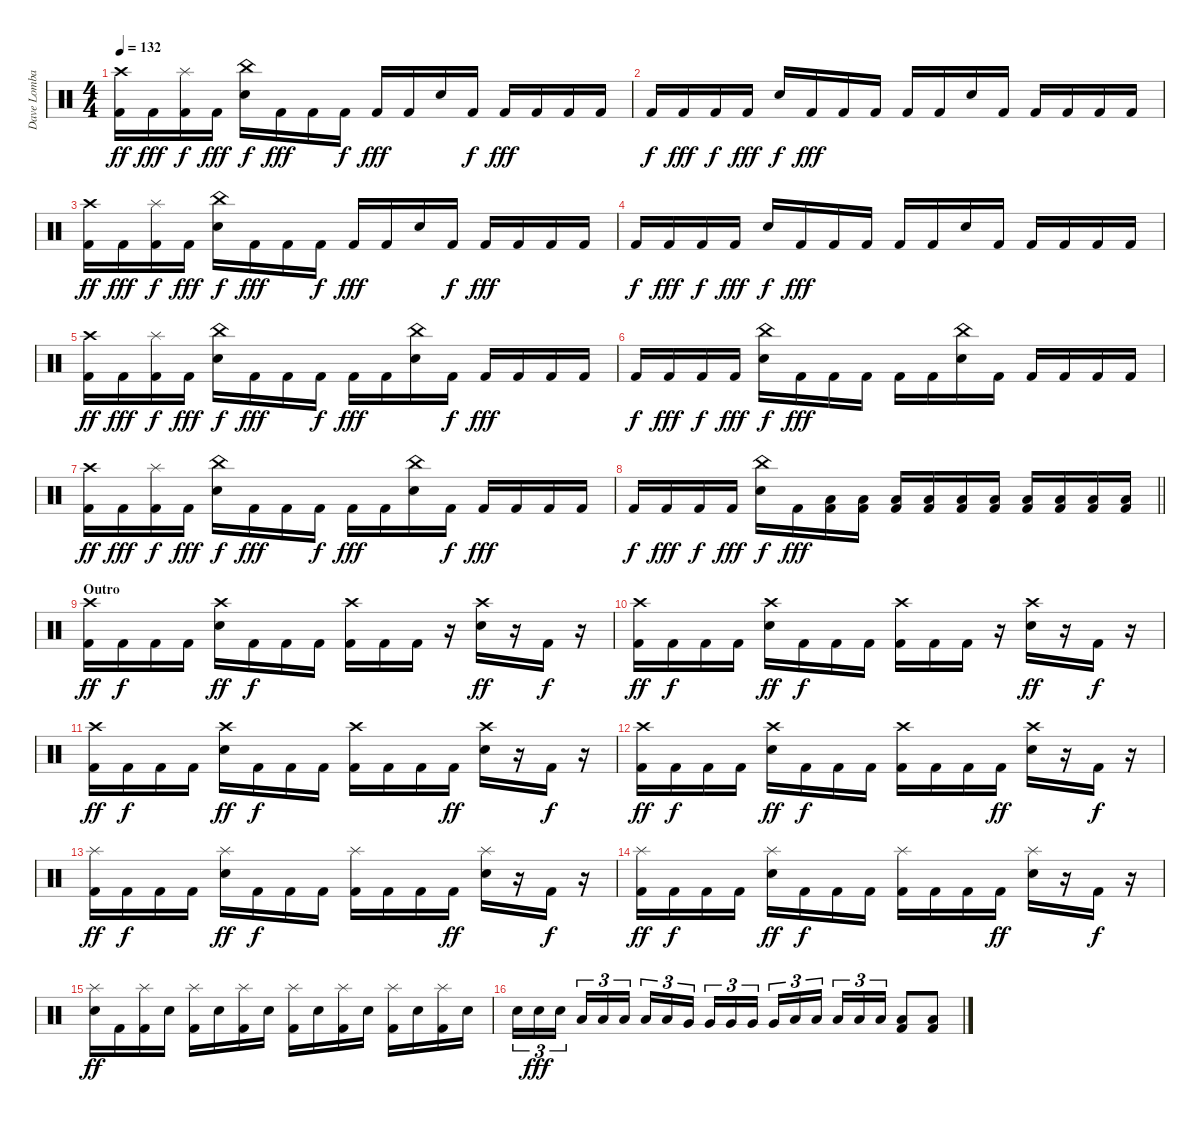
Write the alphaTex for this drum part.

\track ("Dave Lombardo" "Dave Lomba") {instrument percussion}
\staff {score}
\articulation defaults
\ts (4 4)
\tempo 132
\clef neutral
\ks c
("Crash high (hit)" "Kick (hit) 2").16{dy ff} "Kick (hit) 2".16{dy fff} ("Splash (hit)" "Kick (hit) 2").16{dy f} "Kick (hit) 2".16{dy fff} ("China (hit)" "Snare (hit) 2").16{dy f} "Kick (hit) 2".16{dy fff} "Kick (hit) 2".16 "Kick (hit) 2".16{dy f} "Kick (hit) 2".16{dy fff} "Kick (hit) 2".16 "Snare (hit) 2".16 "Kick (hit) 2".16{dy f} "Kick (hit) 2".16{dy fff} "Kick (hit) 2".16 "Kick (hit) 2".16 "Kick (hit) 2".16 |
"Kick (hit) 2".16{dy f} "Kick (hit) 2".16{dy fff} "Kick (hit) 2".16{dy f} "Kick (hit) 2".16{dy fff} "Snare (hit) 2".16{dy f} "Kick (hit) 2".16{dy fff} "Kick (hit) 2".16 "Kick (hit) 2".16 "Kick (hit) 2".16 "Kick (hit) 2".16 "Snare (hit) 2".16 "Kick (hit) 2".16 "Kick (hit) 2".16 "Kick (hit) 2".16 "Kick (hit) 2".16 "Kick (hit) 2".16 |
("Crash high (hit)" "Kick (hit) 2").16{dy ff} "Kick (hit) 2".16{dy fff} ("Splash (hit)" "Kick (hit) 2").16{dy f} "Kick (hit) 2".16{dy fff} ("China (hit)" "Snare (hit) 2").16{dy f} "Kick (hit) 2".16{dy fff} "Kick (hit) 2".16 "Kick (hit) 2".16{dy f} "Kick (hit) 2".16{dy fff} "Kick (hit) 2".16 "Snare (hit) 2".16 "Kick (hit) 2".16{dy f} "Kick (hit) 2".16{dy fff} "Kick (hit) 2".16 "Kick (hit) 2".16 "Kick (hit) 2".16 |
"Kick (hit) 2".16{dy f} "Kick (hit) 2".16{dy fff} "Kick (hit) 2".16{dy f} "Kick (hit) 2".16{dy fff} "Snare (hit) 2".16{dy f} "Kick (hit) 2".16{dy fff} "Kick (hit) 2".16 "Kick (hit) 2".16 "Kick (hit) 2".16 "Kick (hit) 2".16 "Snare (hit) 2".16 "Kick (hit) 2".16 "Kick (hit) 2".16 "Kick (hit) 2".16 "Kick (hit) 2".16 "Kick (hit) 2".16 |
("Crash high (hit)" "Kick (hit) 2").16{dy ff} "Kick (hit) 2".16{dy fff} ("Splash (hit)" "Kick (hit) 2").16{dy f} "Kick (hit) 2".16{dy fff} ("China (hit)" "Snare (hit) 2").16{dy f} "Kick (hit) 2".16{dy fff} "Kick (hit) 2".16 "Kick (hit) 2".16{dy f} "Kick (hit) 2".16{dy fff} "Kick (hit) 2".16 ("China (hit)" "Snare (hit) 2").16 "Kick (hit) 2".16{dy f} "Kick (hit) 2".16{dy fff} "Kick (hit) 2".16 "Kick (hit) 2".16 "Kick (hit) 2".16 |
"Kick (hit) 2".16{dy f} "Kick (hit) 2".16{dy fff} "Kick (hit) 2".16{dy f} "Kick (hit) 2".16{dy fff} ("China (hit)" "Snare (hit) 2").16{dy f} "Kick (hit) 2".16{dy fff} "Kick (hit) 2".16 "Kick (hit) 2".16 "Kick (hit) 2".16 "Kick (hit) 2".16 ("China (hit)" "Snare (hit) 2").16 "Kick (hit) 2".16 "Kick (hit) 2".16 "Kick (hit) 2".16 "Kick (hit) 2".16 "Kick (hit) 2".16 |
("Crash high (hit)" "Kick (hit) 2").16{dy ff} "Kick (hit) 2".16{dy fff} ("Splash (hit)" "Kick (hit) 2").16{dy f} "Kick (hit) 2".16{dy fff} ("China (hit)" "Snare (hit) 2").16{dy f} "Kick (hit) 2".16{dy fff} "Kick (hit) 2".16 "Kick (hit) 2".16{dy f} "Kick (hit) 2".16{dy fff} "Kick (hit) 2".16 ("China (hit)" "Snare (hit) 2").16 "Kick (hit) 2".16{dy f} "Kick (hit) 2".16{dy fff} "Kick (hit) 2".16 "Kick (hit) 2".16 "Kick (hit) 2".16 |
\barLineRight lightlight "Kick (hit) 2".16{dy f} "Kick (hit) 2".16{dy fff} "Kick (hit) 2".16{dy f} "Kick (hit) 2".16{dy fff}
("China (hit)" "Snare (hit) 2").16{dy f} "Kick (hit) 2".16{dy fff} ("Low Floor Tom (hit)" "Kick (hit) 2").16 ("Low Floor Tom (hit)" "Kick (hit) 2").16 ("Low Floor Tom (hit)" "Kick (hit) 2").16 ("Low Floor Tom (hit)" "Kick (hit) 2").16 ("Low Floor Tom (hit)" "Kick (hit) 2").16 ("Low Floor Tom (hit)" "Kick (hit) 2").16 ("Low Floor Tom (hit)" "Kick (hit) 2").16 ("Low Floor Tom (hit)" "Kick (hit) 2").16 ("Low Floor Tom (hit)" "Kick (hit) 2").16 ("Low Floor Tom (hit)" "Kick (hit) 2").16 |
\section ("" "Outro")
("Crash high (hit)" "Kick (hit) 2").16{dy ff} "Kick (hit) 2".16{dy f} "Kick (hit) 2".16 "Kick (hit) 2".16 ("Crash high (hit)" "Snare (hit) 2").16{dy ff} "Kick (hit) 2".16{dy f} "Kick (hit) 2".16 "Kick (hit) 2".16 ("Crash high (hit)" "Kick (hit) 2").16 "Kick (hit) 2".16 "Kick (hit) 2".16 r.16 ("Crash high (hit)" "Snare (hit) 2").16{dy ff} r.16 "Kick (hit) 2".16{dy f} r.16 |
("Crash high (hit)" "Kick (hit) 2").16{dy ff} "Kick (hit) 2".16{dy f} "Kick (hit) 2".16 "Kick (hit) 2".16 ("Crash high (hit)" "Snare (hit) 2").16{dy ff} "Kick (hit) 2".16{dy f} "Kick (hit) 2".16 "Kick (hit) 2".16 ("Crash high (hit)" "Kick (hit) 2").16 "Kick (hit) 2".16 "Kick (hit) 2".16 r.16 ("Crash high (hit)" "Snare (hit) 2").16{dy ff} r.16 "Kick (hit) 2".16{dy f} r.16 |
("Crash high (hit)" "Kick (hit) 2").16{dy ff} "Kick (hit) 2".16{dy f} "Kick (hit) 2".16 "Kick (hit) 2".16 ("Crash high (hit)" "Snare (hit) 2").16{dy ff} "Kick (hit) 2".16{dy f} "Kick (hit) 2".16 "Kick (hit) 2".16 ("Crash high (hit)" "Kick (hit) 2").16 "Kick (hit) 2".16 "Kick (hit) 2".16 "Kick (hit) 2".16{dy ff} ("Crash high (hit)" "Snare (hit) 2").16 r.16 "Kick (hit) 2".16{dy f} r.16 |
("Crash high (hit)" "Kick (hit) 2").16{dy ff} "Kick (hit) 2".16{dy f} "Kick (hit) 2".16 "Kick (hit) 2".16 ("Crash high (hit)" "Snare (hit) 2").16{dy ff} "Kick (hit) 2".16{dy f} "Kick (hit) 2".16 "Kick (hit) 2".16 ("Crash high (hit)" "Kick (hit) 2").16 "Kick (hit) 2".16 "Kick (hit) 2".16 "Kick (hit) 2".16{dy ff} ("Crash high (hit)" "Snare (hit) 2").16 r.16 "Kick (hit) 2".16{dy f} r.16 |
("Splash (hit)" "Kick (hit) 2").16{dy ff} "Kick (hit) 2".16{dy f} "Kick (hit) 2".16 "Kick (hit) 2".16 ("Splash (hit)" "Snare (hit) 2").16{dy ff} "Kick (hit) 2".16{dy f} "Kick (hit) 2".16 "Kick (hit) 2".16 ("Splash (hit)" "Kick (hit) 2").16 "Kick (hit) 2".16 "Kick (hit) 2".16 "Kick (hit) 2".16{dy ff} ("Splash (hit)" "Snare (hit) 2").16 r.16 "Kick (hit) 2".16{dy f} r.16 |
("Splash (hit)" "Kick (hit) 2").16{dy ff} "Kick (hit) 2".16{dy f} "Kick (hit) 2".16 "Kick (hit) 2".16 ("Splash (hit)" "Snare (hit) 2").16{dy ff} "Kick (hit) 2".16{dy f} "Kick (hit) 2".16 "Kick (hit) 2".16 ("Splash (hit)" "Kick (hit) 2").16 "Kick (hit) 2".16 "Kick (hit) 2".16 "Kick (hit) 2".16{dy ff} ("Splash (hit)" "Snare (hit) 2").16 r.16 "Kick (hit) 2".16{dy f} r.16 |
("Splash (hit)" "Snare (hit) 2").16{dy ff} "Kick (hit) 2".16 ("Splash (hit)" "Kick (hit) 2").16 "Snare (hit) 2".16 ("Splash (hit)" "Kick (hit) 2").16 "Snare (hit) 2".16 ("Splash (hit)" "Kick (hit) 2").16 "Snare (hit) 2".16 ("Splash (hit)" "Kick (hit) 2").16 "Snare (hit) 2".16 ("Splash (hit)" "Kick (hit) 2").16 "Snare (hit) 2".16 ("Splash (hit)" "Kick (hit) 2").16 "Snare (hit) 2".16 ("Splash (hit)" "Kick (hit) 2").16 "Snare (hit) 2".16 |
"Snare (hit) 2".16{tu (3 2)} "Snare (hit) 2".16{tu (3 2) dy fff} "Snare (hit) 2".16{tu (3 2) beam splitsecondary} "Low Tom (hit)".16{tu (3 2)} "Low Tom (hit)".16{tu (3 2)} "Low Tom (hit)".16{tu (3 2)} "Low Tom (hit)".16{tu (3 2)} "Low Tom (hit)".16{tu (3 2)} "Very Low Tom (hit)".16{tu (3 2) beam splitsecondary} "Very Low Tom (hit)".16{tu (3 2)} "Very Low Tom (hit)".16{tu (3 2)} "Very Low Tom (hit)".16{tu (3 2)} "Very Low Tom (hit)".16{tu (3 2)} "Low Floor Tom (hit)".16{tu (3 2)} "Low Floor Tom (hit)".16{tu (3 2) beam splitsecondary} "Low Floor Tom (hit)".16{tu (3 2)} "Low Floor Tom (hit)".16{tu (3 2)} "Low Floor Tom (hit)".16{tu (3 2)} ("Low Floor Tom (hit)" "Kick (hit) 2").8 ("Low Floor Tom (hit)" "Kick (hit) 2").8
